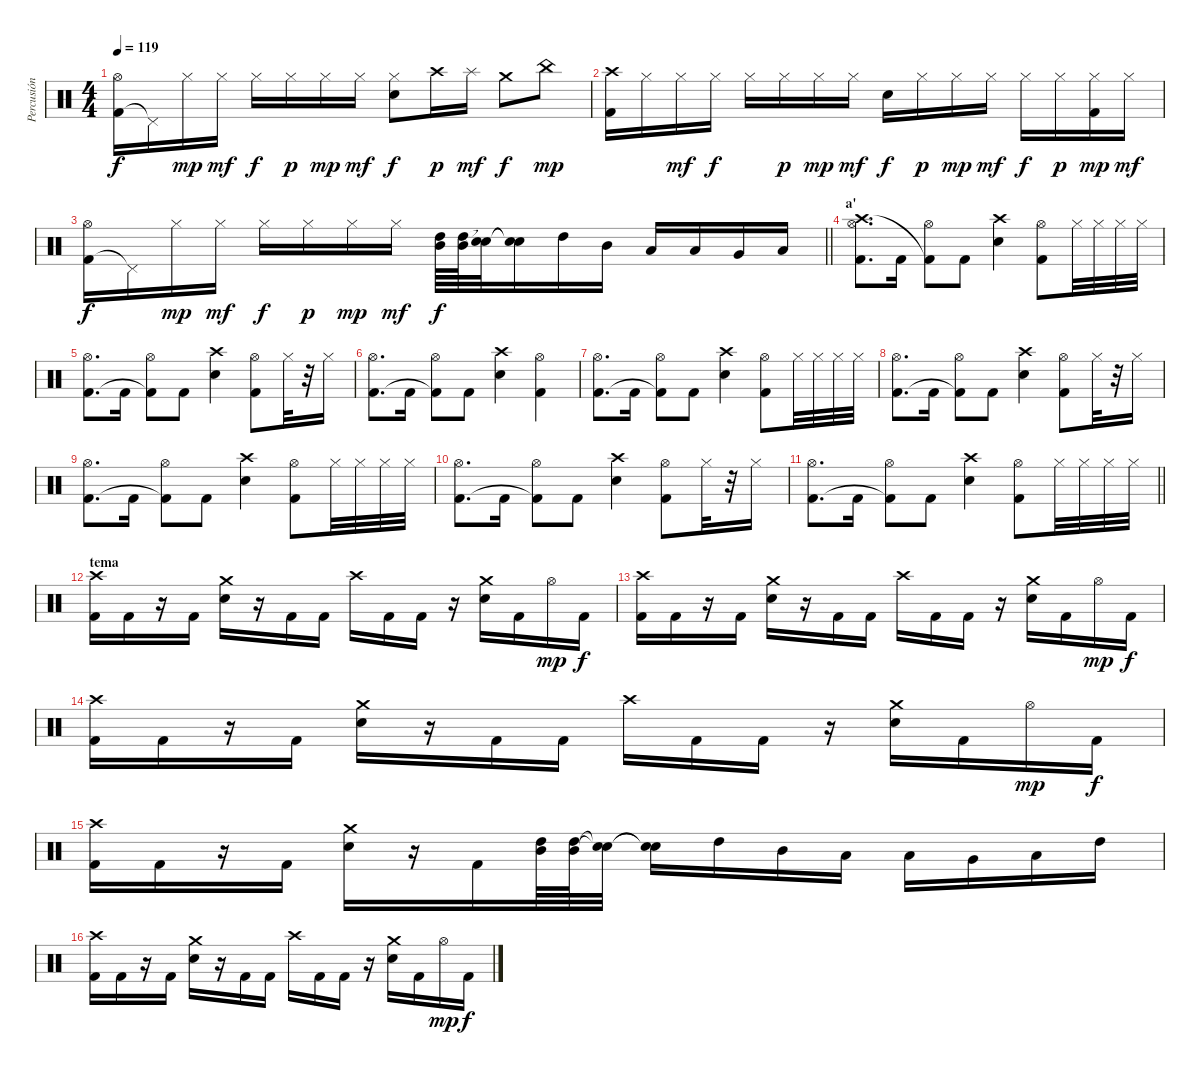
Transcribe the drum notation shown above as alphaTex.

\track ("Percusión" "Percusión") {mute instrument percussion}
\staff {score}
\articulation defaults
\ts (4 4)
\tempo 119
\clef neutral
\ks c
("Kick (hit) 2" "Hi-Hat (open)").16{dy f} "Pedal Hi-Hat (hit)"{t}.16 "Hi-Hat (closed)".16{dy mp} "Hi-Hat (closed)".16{dy mf} "Hi-Hat (closed)".16{dy f} "Hi-Hat (closed)".16{dy p} "Hi-Hat (closed)".16{dy mp} "Hi-Hat (closed)".16{dy mf} ("Hi-Hat (closed)" "Snare (hit) 2").8{dy f} "Crash high (hit)".16{dy p} "Splash (hit)".16{dy mf} "Crash medium (hit)".8{dy f} "China (hit)".8{dy mp} |
("Kick (hit) 2" "Crash high (hit)").16 "Hi-Hat (closed)".16 "Hi-Hat (closed)".16{dy mf} "Hi-Hat (closed)".16{dy f} "Hi-Hat (closed)".16 "Hi-Hat (closed)".16{dy p} "Hi-Hat (closed)".16{dy mp} "Hi-Hat (closed)".16{dy mf} "Snare (hit) 2".16{dy f} "Hi-Hat (closed)".16{dy p} "Hi-Hat (closed)".16{dy mp} "Hi-Hat (closed)".16{dy mf} "Hi-Hat (closed)".16{dy f} "Hi-Hat (closed)".16{dy p} ("Kick (hit) 2" "Hi-Hat (closed)").16{dy mp} "Hi-Hat (closed)".16{dy mf} |
\barLineRight lightlight
("Kick (hit) 2" "Hi-Hat (open)").16{dy f} "Pedal Hi-Hat (hit)"{t}.16 "Hi-Hat (closed)".16{dy mp} "Hi-Hat (closed)".16{dy mf} "Hi-Hat (closed)".16{dy f} "Hi-Hat (closed)".16{dy p} "Hi-Hat (closed)".16{dy mp} "Hi-Hat (closed)".16{dy mf} ("High Tom (hit)" "Mid Tom (hit)").64{dy f} ("High Tom (hit)" "Mid Tom (hit)").64 ("Snare (hit)"{t} "Snare (hit)"{t}).32 ("Snare (hit)"{t} "Snare (hit)"{t}).16 "High Tom (hit)".16 "Mid Tom (hit)".16 "Low Tom (hit)".16 "Low Tom (hit)".16 "Very Low Tom (hit)".16 "Low Floor Tom (hit)".16 |
\section ("" "a'")
("Hi-Hat (open)" "Crash high (hit)" "Kick (hit) 2").8{d} "Kick (hit) 2".16 ("Hi-Hat (open)" "Kick (hit) 2"{t}).8 "Kick (hit) 2".8 ("Crash high (hit)" "Electric Snare (hit)").4 ("Hi-Hat (open)" "Kick (hit) 2").8 "Hi-Hat (closed)".32 "Hi-Hat (closed)".32 "Hi-Hat (closed)".32 "Hi-Hat (closed)".32 |
("Hi-Hat (open)" "Kick (hit) 2").8{d} "Kick (hit) 2".16 ("Hi-Hat (open)" "Kick (hit) 2"{t}).8 "Kick (hit) 2".8 ("Crash high (hit)" "Electric Snare (hit)").4 ("Hi-Hat (open)" "Kick (hit) 2").8 "Hi-Hat (closed)".32 r.32 "Hi-Hat (closed)".16 |
("Hi-Hat (open)" "Kick (hit) 2").8{d} "Kick (hit) 2".16 ("Hi-Hat (open)" "Kick (hit) 2"{t}).8 "Kick (hit) 2".8 ("Crash high (hit)" "Electric Snare (hit)").4 ("Hi-Hat (open)" "Kick (hit) 2").4 |
("Hi-Hat (open)" "Kick (hit) 2").8{d} "Kick (hit) 2".16 ("Hi-Hat (open)" "Kick (hit) 2"{t}).8 "Kick (hit) 2".8 ("Crash high (hit)" "Electric Snare (hit)").4 ("Hi-Hat (open)" "Kick (hit) 2").8 "Hi-Hat (closed)".32 "Hi-Hat (closed)".32 "Hi-Hat (closed)".32 "Hi-Hat (closed)".32 |
("Hi-Hat (open)" "Kick (hit) 2").8{d} "Kick (hit) 2".16 ("Hi-Hat (open)" "Kick (hit) 2"{t}).8 "Kick (hit) 2".8 ("Crash high (hit)" "Electric Snare (hit)").4 ("Hi-Hat (open)" "Kick (hit) 2").8 "Hi-Hat (closed)".32 r.32 "Hi-Hat (closed)".16 |
("Hi-Hat (open)" "Kick (hit) 2").8{d} "Kick (hit) 2".16 ("Hi-Hat (open)" "Kick (hit) 2"{t}).8 "Kick (hit) 2".8 ("Crash high (hit)" "Electric Snare (hit)").4 ("Hi-Hat (open)" "Kick (hit) 2").8 "Hi-Hat (closed)".32 "Hi-Hat (closed)".32 "Hi-Hat (closed)".32 "Hi-Hat (closed)".32 |
("Hi-Hat (open)" "Kick (hit) 2").8{d} "Kick (hit) 2".16 ("Hi-Hat (open)" "Kick (hit) 2"{t}).8 "Kick (hit) 2".8 ("Crash high (hit)" "Electric Snare (hit)").4 ("Hi-Hat (open)" "Kick (hit) 2").8 "Hi-Hat (closed)".32 r.32 "Hi-Hat (closed)".16 |
\barLineRight lightlight
("Hi-Hat (open)" "Kick (hit) 2").8{d} "Kick (hit) 2".16 ("Hi-Hat (open)" "Kick (hit) 2"{t}).8 "Kick (hit) 2".8 ("Crash high (hit)" "Electric Snare (hit)").4 ("Hi-Hat (open)" "Kick (hit) 2").8 "Hi-Hat (closed)".32 "Hi-Hat (closed)".32 "Hi-Hat (closed)".32 "Hi-Hat (closed)".32 |
\section ("" "tema")
("Kick (hit) 2" "Crash high (hit)").16 "Kick (hit) 2".16 r.16 "Kick (hit) 2".16 ("Crash medium (hit)" "Snare (hit) 2").16 r.16 "Kick (hit) 2".16 "Kick (hit) 2".16 "Crash high (hit)".16 "Kick (hit) 2".16 "Kick (hit) 2".16 r.16 ("Crash medium (hit)" "Snare (hit) 2").16 "Kick (hit) 2".16 "Hi-Hat (open)".16{dy mp} "Kick (hit) 2".16{dy f} |
("Kick (hit) 2" "Crash high (hit)").16 "Kick (hit) 2".16 r.16 "Kick (hit) 2".16 ("Crash medium (hit)" "Snare (hit) 2").16 r.16 "Kick (hit) 2".16 "Kick (hit) 2".16 "Crash high (hit)".16 "Kick (hit) 2".16 "Kick (hit) 2".16 r.16 ("Crash medium (hit)" "Snare (hit) 2").16 "Kick (hit) 2".16 "Hi-Hat (open)".16{dy mp} "Kick (hit) 2".16{dy f} |
("Kick (hit) 2" "Crash high (hit)").16 "Kick (hit) 2".16 r.16 "Kick (hit) 2".16 ("Crash medium (hit)" "Snare (hit) 2").16 r.16 "Kick (hit) 2".16 "Kick (hit) 2".16 "Crash high (hit)".16 "Kick (hit) 2".16 "Kick (hit) 2".16 r.16 ("Crash medium (hit)" "Snare (hit) 2").16 "Kick (hit) 2".16 "Hi-Hat (open)".16{dy mp} "Kick (hit) 2".16{dy f} |
("Kick (hit) 2" "Crash high (hit)").16 "Kick (hit) 2".16 r.16 "Kick (hit) 2".16 ("Crash medium (hit)" "Snare (hit) 2").16 r.16 "Kick (hit) 2".16 ("High Tom (hit)" "Mid Tom (hit)").64 ("High Tom (hit)" "Mid Tom (hit)").64 ("Snare (hit)"{t} "Snare (hit)"{t}).32 ("Snare (hit)"{t} "Snare (hit)"{t}).16 "High Tom (hit)".16 "Mid Tom (hit)".16 "Low Tom (hit)".16 "Low Tom (hit)".16 "Very Low Tom (hit)".16 "Low Floor Tom (hit)".16 "High Tom (hit)".16 |
("Kick (hit) 2" "Crash high (hit)").16 "Kick (hit) 2".16 r.16 "Kick (hit) 2".16 ("Crash medium (hit)" "Snare (hit) 2").16 r.16 "Kick (hit) 2".16 "Kick (hit) 2".16 "Crash high (hit)".16 "Kick (hit) 2".16 "Kick (hit) 2".16 r.16 ("Crash medium (hit)" "Snare (hit) 2").16 "Kick (hit) 2".16 "Hi-Hat (open)".16{dy mp} "Kick (hit) 2".16{dy f}
